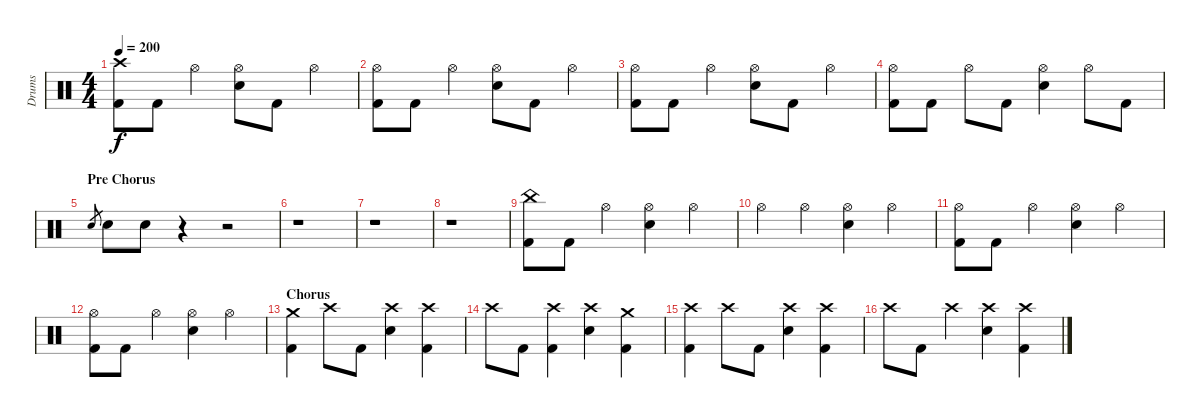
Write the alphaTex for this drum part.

\track ("Drums" "Drums") {instrument percussion}
\staff {score}
\articulation defaults
\ts (4 4)
\tempo 200
\clef neutral
\ks c
("Crash high (hit)" "Kick (hit) 2").8{dy f} "Kick (hit) 2".8 "Hi-Hat (open)".4 ("Hi-Hat (open)" "Electric Snare (hit)").8 "Kick (hit) 2".8 "Hi-Hat (open)".4 |
("Hi-Hat (open)" "Kick (hit) 2").8 "Kick (hit) 2".8 "Hi-Hat (open)".4 ("Hi-Hat (open)" "Electric Snare (hit)").8 "Kick (hit) 2".8 "Hi-Hat (open)".4 |
("Hi-Hat (open)" "Kick (hit) 2").8 "Kick (hit) 2".8 "Hi-Hat (open)".4 ("Hi-Hat (open)" "Electric Snare (hit)").8 "Kick (hit) 2".8 "Hi-Hat (open)".4 |
("Hi-Hat (open)" "Kick (hit) 2").8 "Kick (hit) 2".8 "Hi-Hat (open)".8 "Kick (hit) 2".8 ("Hi-Hat (open)" "Electric Snare (hit)").4 "Hi-Hat (open)".8 "Kick (hit) 2".8 |
\section ("" "Pre Chorus")
"Electric Snare (hit)".8{gr} "Electric Snare (hit)".8 "Electric Snare (hit)".8 r.4 r.2 |
r.1 |
r.1 |
r.1 |
("China (hit)" "Kick (hit) 2").8 "Kick (hit) 2".8 "Hi-Hat (open)".4 ("Hi-Hat (open)" "Electric Snare (hit)").4 "Hi-Hat (open)".4 |
"Hi-Hat (open)".4 "Hi-Hat (open)".4 ("Hi-Hat (open)" "Electric Snare (hit)").4 "Hi-Hat (open)".4 |
("Hi-Hat (open)" "Kick (hit) 2").8 "Kick (hit) 2".8 "Hi-Hat (open)".4 ("Hi-Hat (open)" "Electric Snare (hit)").4 "Hi-Hat (open)".4 |
("Hi-Hat (open)" "Kick (hit) 2").8 "Kick (hit) 2".8 "Hi-Hat (open)".4 ("Hi-Hat (open)" "Electric Snare (hit)").4 "Hi-Hat (open)".4 |
\section ("" "Chorus")
("Crash medium (hit)" "Kick (hit) 2").4 "Crash high (hit)".8 "Kick (hit) 2".8 ("Crash high (hit)" "Electric Snare (hit)").4 ("Crash high (hit)" "Kick (hit) 2").4 |
"Crash high (hit)".8 "Kick (hit) 2".8 ("Crash high (hit)" "Kick (hit) 2").4 ("Crash high (hit)" "Electric Snare (hit)").4 ("Crash medium (hit)" "Kick (hit) 2").4 |
("Crash high (hit)" "Kick (hit) 2").4 "Crash high (hit)".8 "Kick (hit) 2".8 ("Crash high (hit)" "Electric Snare (hit)").4 ("Crash high (hit)" "Kick (hit) 2").4 |
"Crash high (hit)".8 "Kick (hit) 2".8 "Crash high (hit)".4 ("Crash high (hit)" "Electric Snare (hit)").4 ("Crash high (hit)" "Kick (hit) 2").4
